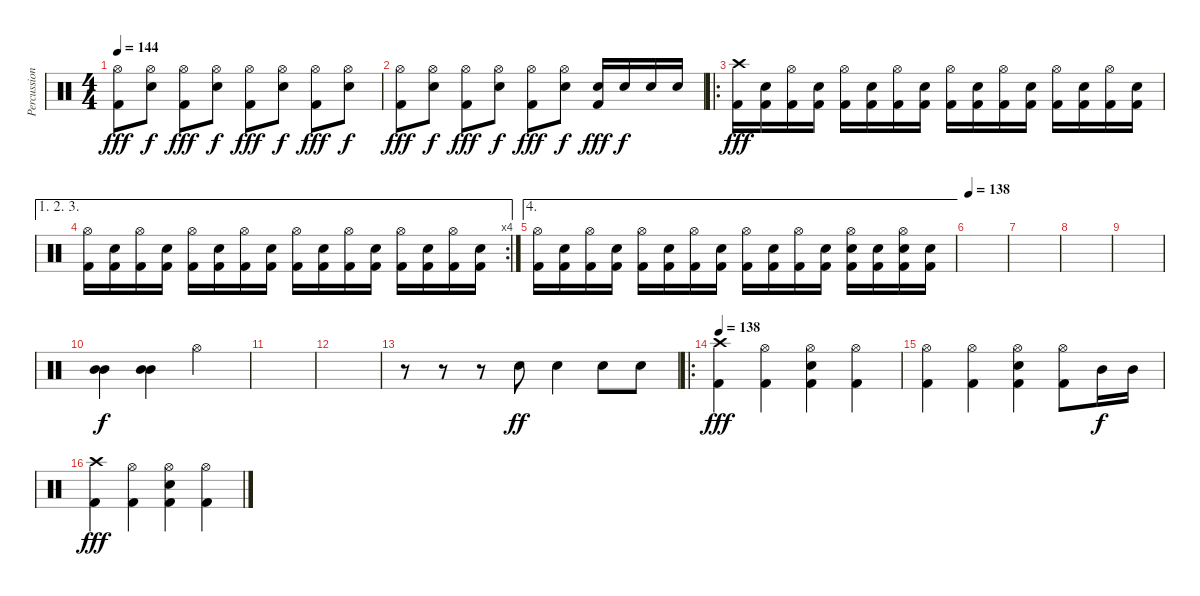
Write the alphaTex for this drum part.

\track ("Percussion" "Percussion") {instrument percussion}
\staff {score}
\articulation defaults
\ts (4 4)
\tempo 144
\clef neutral
\ks c
("Hi-Hat (open)" "Kick (hit) 2").8{dy fff} ("Hi-Hat (open)" "Snare (hit) 2").8{dy f} ("Hi-Hat (open)" "Kick (hit) 2").8{dy fff} ("Hi-Hat (open)" "Snare (hit) 2").8{dy f} ("Hi-Hat (open)" "Kick (hit) 2").8{dy fff} ("Hi-Hat (open)" "Snare (hit) 2").8{dy f} ("Hi-Hat (open)" "Kick (hit) 2").8{dy fff} ("Hi-Hat (open)" "Snare (hit) 2").8{dy f} |
("Hi-Hat (open)" "Kick (hit) 2").8{dy fff} ("Hi-Hat (open)" "Snare (hit) 2").8{dy f} ("Hi-Hat (open)" "Kick (hit) 2").8{dy fff} ("Hi-Hat (open)" "Snare (hit) 2").8{dy f} ("Hi-Hat (open)" "Kick (hit) 2").8{dy fff} ("Hi-Hat (open)" "Snare (hit) 2").8{dy f} ("Snare (hit) 2" "Kick (hit) 2").16{dy fff} "Snare (hit) 2".16{dy f} "Snare (hit) 2".16 "Snare (hit) 2".16 |
\ro
("Crash high (hit)" "Kick (hit) 2").16{dy fff} ("Snare (hit) 2" "Kick (hit) 2").16 ("Hi-Hat (open)" "Kick (hit) 2").16 ("Snare (hit) 2" "Kick (hit) 2").16 ("Hi-Hat (open)" "Kick (hit) 2").16 ("Snare (hit) 2" "Kick (hit) 2").16 ("Hi-Hat (open)" "Kick (hit) 2").16 ("Snare (hit) 2" "Kick (hit) 2").16 ("Hi-Hat (open)" "Kick (hit) 2").16 ("Snare (hit) 2" "Kick (hit) 2").16 ("Hi-Hat (open)" "Kick (hit) 2").16 ("Snare (hit) 2" "Kick (hit) 2").16 ("Hi-Hat (open)" "Kick (hit) 2").16 ("Snare (hit) 2" "Kick (hit) 2").16 ("Hi-Hat (open)" "Kick (hit) 2").16 ("Snare (hit) 2" "Kick (hit) 2").16 |
\ae (1 2 3)
\rc 4
("Hi-Hat (open)" "Kick (hit) 2").16 ("Snare (hit) 2" "Kick (hit) 2").16 ("Hi-Hat (open)" "Kick (hit) 2").16 ("Snare (hit) 2" "Kick (hit) 2").16 ("Hi-Hat (open)" "Kick (hit) 2").16 ("Snare (hit) 2" "Kick (hit) 2").16 ("Hi-Hat (open)" "Kick (hit) 2").16 ("Snare (hit) 2" "Kick (hit) 2").16 ("Hi-Hat (open)" "Kick (hit) 2").16 ("Snare (hit) 2" "Kick (hit) 2").16 ("Hi-Hat (open)" "Kick (hit) 2").16 ("Snare (hit) 2" "Kick (hit) 2").16 ("Hi-Hat (open)" "Kick (hit) 2").16 ("Snare (hit) 2" "Kick (hit) 2").16 ("Hi-Hat (open)" "Kick (hit) 2").16 ("Snare (hit) 2" "Kick (hit) 2").16 |
\ae 4
("Hi-Hat (open)" "Kick (hit) 2").16 ("Snare (hit) 2" "Kick (hit) 2").16 ("Hi-Hat (open)" "Kick (hit) 2").16 ("Snare (hit) 2" "Kick (hit) 2").16 ("Hi-Hat (open)" "Kick (hit) 2").16 ("Snare (hit) 2" "Kick (hit) 2").16 ("Hi-Hat (open)" "Kick (hit) 2").16 ("Snare (hit) 2" "Kick (hit) 2").16 ("Hi-Hat (open)" "Kick (hit) 2").16 ("Snare (hit) 2" "Kick (hit) 2").16 ("Hi-Hat (open)" "Kick (hit) 2").16 ("Snare (hit) 2" "Kick (hit) 2").16 ("Hi-Hat (open)" "Snare (hit) 2" "Kick (hit) 2").16 ("Snare (hit) 2" "Kick (hit) 2").16 ("Hi-Hat (open)" "Snare (hit) 2" "Kick (hit) 2").16 ("Snare (hit) 2" "Kick (hit) 2").16 |
\tempo 138
|
|
|
|
("Mid Tom (hit)" "Mid Tom (hit)").4{dy f} ("Mid Tom (hit)" "Mid Tom (hit)").4 "Hi-Hat (open)".2 |
|
|
r.8 r.8 r.8 "Snare (hit) 2".8{dy ff} "Snare (hit) 2".4 "Snare (hit) 2".8 "Snare (hit) 2".8 |
\ro
\tempo 138
("Crash high (hit)" "Kick (hit) 2").4{dy fff} ("Hi-Hat (open)" "Kick (hit) 2").4 ("Hi-Hat (open)" "Snare (hit) 2" "Kick (hit) 2").4 ("Hi-Hat (open)" "Kick (hit) 2").4 |
("Hi-Hat (open)" "Kick (hit) 2").4 ("Hi-Hat (open)" "Kick (hit) 2").4 ("Hi-Hat (open)" "Snare (hit) 2" "Kick (hit) 2").4 ("Hi-Hat (open)" "Kick (hit) 2").8 "Mid Tom (hit)".16{dy f} "Mid Tom (hit)".16 |
("Crash high (hit)" "Kick (hit) 2").4{dy fff} ("Hi-Hat (open)" "Kick (hit) 2").4 ("Hi-Hat (open)" "Snare (hit) 2" "Kick (hit) 2").4 ("Hi-Hat (open)" "Kick (hit) 2").4
